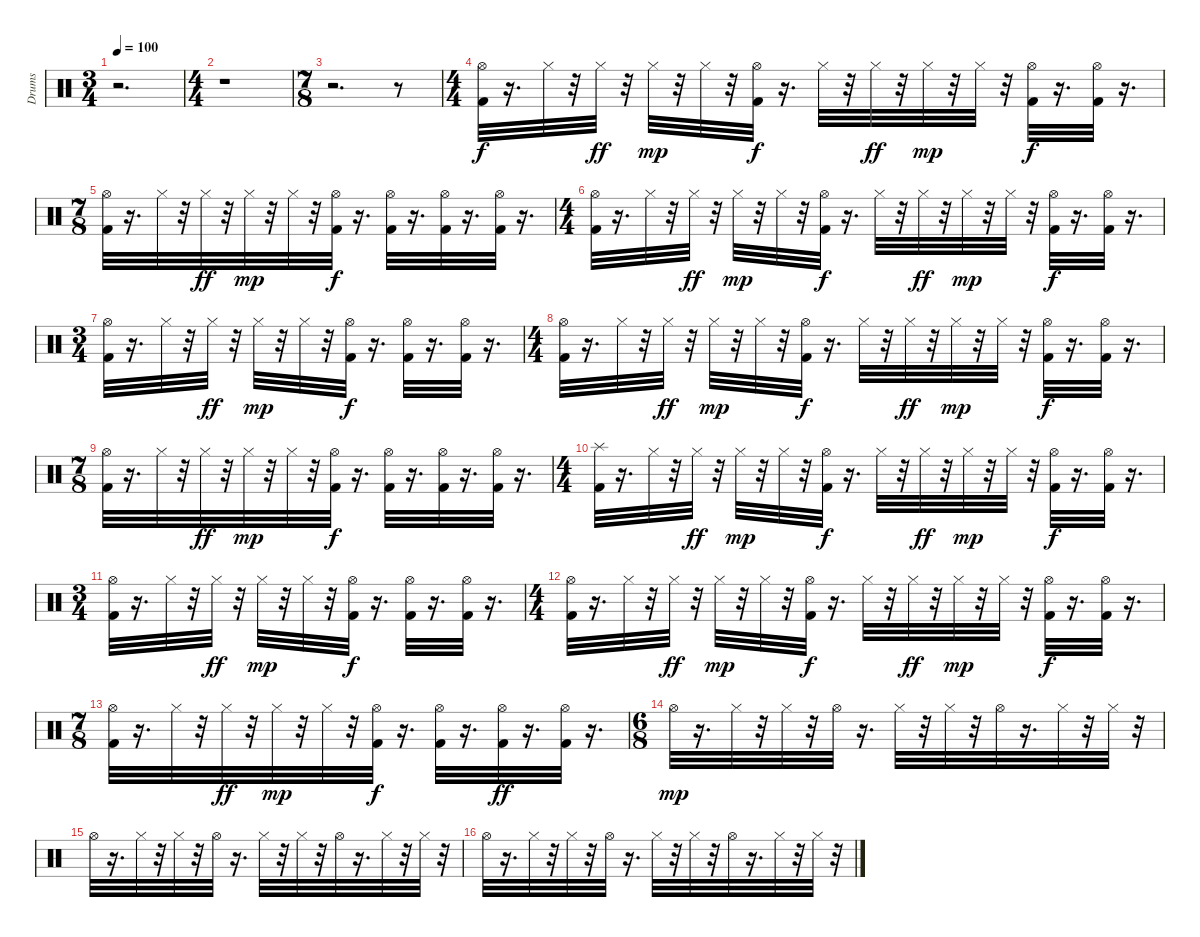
\track ("Drums               " "Drums     ") {instrument percussion}
\staff {score}
\articulation defaults
\ts (3 4)
\tempo 100
\clef neutral
\ks c
r.2{d dy f} |
\ts (4 4)
r.1 |
\ts (7 8)
r.2{d} r.8 |
\ts (4 4)
("Hi-Hat (open)" "Kick (hit) 2").32 r.16{d} "Hi-Hat (closed)".32 r.32 "Hi-Hat (closed)".32{dy ff} r.32 "Hi-Hat (closed)".32{dy mp} r.32 "Hi-Hat (closed)".32 r.32 ("Hi-Hat (open)" "Kick (hit) 2").32{dy f} r.16{d} "Hi-Hat (closed)".32 r.32 "Hi-Hat (closed)".32{dy ff} r.32 "Hi-Hat (closed)".32{dy mp} r.32 "Hi-Hat (closed)".32 r.32 ("Hi-Hat (open)" "Kick (hit) 2").32{dy f} r.16{d} ("Hi-Hat (open)" "Kick (hit) 2").32 r.16{d} |
\ts (7 8)
("Hi-Hat (open)" "Kick (hit) 2").32 r.16{d} "Hi-Hat (closed)".32 r.32 "Hi-Hat (closed)".32{dy ff} r.32 "Hi-Hat (closed)".32{dy mp} r.32 "Hi-Hat (closed)".32 r.32 ("Hi-Hat (open)" "Kick (hit) 2").32{dy f} r.16{d} ("Hi-Hat (open)" "Kick (hit) 2").32 r.16{d} ("Hi-Hat (open)" "Kick (hit) 2").32 r.16{d} ("Hi-Hat (open)" "Kick (hit) 2").32 r.16{d} |
\ts (4 4)
("Hi-Hat (open)" "Kick (hit) 2").32 r.16{d} "Hi-Hat (closed)".32 r.32 "Hi-Hat (closed)".32{dy ff} r.32 "Hi-Hat (closed)".32{dy mp} r.32 "Hi-Hat (closed)".32 r.32 ("Hi-Hat (open)" "Kick (hit) 2").32{dy f} r.16{d} "Hi-Hat (closed)".32 r.32 "Hi-Hat (closed)".32{dy ff} r.32 "Hi-Hat (closed)".32{dy mp} r.32 "Hi-Hat (closed)".32 r.32 ("Hi-Hat (open)" "Kick (hit) 2").32{dy f} r.16{d} ("Hi-Hat (open)" "Kick (hit) 2").32 r.16{d} |
\ts (3 4)
("Hi-Hat (open)" "Kick (hit) 2").32 r.16{d} "Hi-Hat (closed)".32 r.32 "Hi-Hat (closed)".32{dy ff} r.32 "Hi-Hat (closed)".32{dy mp} r.32 "Hi-Hat (closed)".32 r.32 ("Hi-Hat (open)" "Kick (hit) 2").32{dy f} r.16{d} ("Hi-Hat (open)" "Kick (hit) 2").32 r.16{d} ("Hi-Hat (open)" "Kick (hit) 2").32 r.16{d} |
\ts (4 4)
("Hi-Hat (open)" "Kick (hit) 2").32 r.16{d} "Hi-Hat (closed)".32 r.32 "Hi-Hat (closed)".32{dy ff} r.32 "Hi-Hat (closed)".32{dy mp} r.32 "Hi-Hat (closed)".32 r.32 ("Hi-Hat (open)" "Kick (hit) 2").32{dy f} r.16{d} "Hi-Hat (closed)".32 r.32 "Hi-Hat (closed)".32{dy ff} r.32 "Hi-Hat (closed)".32{dy mp} r.32 "Hi-Hat (closed)".32 r.32 ("Hi-Hat (open)" "Kick (hit) 2").32{dy f} r.16{d} ("Hi-Hat (open)" "Kick (hit) 2").32 r.16{d} |
\ts (7 8)
("Hi-Hat (open)" "Kick (hit) 2").32 r.16{d} "Hi-Hat (closed)".32 r.32 "Hi-Hat (closed)".32{dy ff} r.32 "Hi-Hat (closed)".32{dy mp} r.32 "Hi-Hat (closed)".32 r.32 ("Hi-Hat (open)" "Kick (hit) 2").32{dy f} r.16{d} ("Hi-Hat (open)" "Kick (hit) 2").32 r.16{d} ("Hi-Hat (open)" "Kick (hit) 2").32 r.16{d} ("Hi-Hat (open)" "Kick (hit) 2").32 r.16{d} |
\ts (4 4)
("Splash (hit)" "Kick (hit) 2").32 r.16{d} "Hi-Hat (closed)".32 r.32 "Hi-Hat (closed)".32{dy ff} r.32 "Hi-Hat (closed)".32{dy mp} r.32 "Hi-Hat (closed)".32 r.32 ("Hi-Hat (open)" "Kick (hit) 2").32{dy f} r.16{d} "Hi-Hat (closed)".32 r.32 "Hi-Hat (closed)".32{dy ff} r.32 "Hi-Hat (closed)".32{dy mp} r.32 "Hi-Hat (closed)".32 r.32 ("Hi-Hat (open)" "Kick (hit) 2").32{dy f} r.16{d} ("Hi-Hat (open)" "Kick (hit) 2").32 r.16{d} |
\ts (3 4)
("Hi-Hat (open)" "Kick (hit) 2").32 r.16{d} "Hi-Hat (closed)".32 r.32 "Hi-Hat (closed)".32{dy ff} r.32 "Hi-Hat (closed)".32{dy mp} r.32 "Hi-Hat (closed)".32 r.32 ("Hi-Hat (open)" "Kick (hit) 2").32{dy f} r.16{d} ("Hi-Hat (open)" "Kick (hit) 2").32 r.16{d} ("Hi-Hat (open)" "Kick (hit) 2").32 r.16{d} |
\ts (4 4)
("Hi-Hat (open)" "Kick (hit) 2").32 r.16{d} "Hi-Hat (closed)".32 r.32 "Hi-Hat (closed)".32{dy ff} r.32 "Hi-Hat (closed)".32{dy mp} r.32 "Hi-Hat (closed)".32 r.32 ("Hi-Hat (open)" "Kick (hit) 2").32{dy f} r.16{d} "Hi-Hat (closed)".32 r.32 "Hi-Hat (closed)".32{dy ff} r.32 "Hi-Hat (closed)".32{dy mp} r.32 "Hi-Hat (closed)".32 r.32 ("Hi-Hat (open)" "Kick (hit) 2").32{dy f} r.16{d} ("Hi-Hat (open)" "Kick (hit) 2").32 r.16{d} |
\ts (7 8)
("Hi-Hat (open)" "Kick (hit) 2").32 r.16{d} "Hi-Hat (closed)".32 r.32 "Hi-Hat (closed)".32{dy ff} r.32 "Hi-Hat (closed)".32{dy mp} r.32 "Hi-Hat (closed)".32 r.32 ("Hi-Hat (open)" "Kick (hit) 2").32{dy f} r.16{d} ("Hi-Hat (open)" "Kick (hit) 2").32 r.16{d} ("Hi-Hat (open)" "Kick (hit) 2").32{dy ff} r.16{d} ("Hi-Hat (open)" "Kick (hit) 2").32 r.16{d} |
\ts (6 8)
"Hi-Hat (open)".32{dy mp} r.16{d} "Hi-Hat (closed)".32 r.32 "Hi-Hat (closed)".32 r.32 "Hi-Hat (open)".32 r.16{d} "Hi-Hat (closed)".32 r.32 "Hi-Hat (closed)".32 r.32 "Hi-Hat (open)".32 r.16{d} "Hi-Hat (closed)".32 r.32 "Hi-Hat (closed)".32 r.32 |
"Hi-Hat (open)".32 r.16{d} "Hi-Hat (closed)".32 r.32 "Hi-Hat (closed)".32 r.32 "Hi-Hat (open)".32 r.16{d} "Hi-Hat (closed)".32 r.32 "Hi-Hat (closed)".32 r.32 "Hi-Hat (open)".32 r.16{d} "Hi-Hat (closed)".32 r.32 "Hi-Hat (closed)".32 r.32 |
"Hi-Hat (open)".32 r.16{d} "Hi-Hat (closed)".32 r.32 "Hi-Hat (closed)".32 r.32 "Hi-Hat (open)".32 r.16{d} "Hi-Hat (closed)".32 r.32 "Hi-Hat (closed)".32 r.32 "Hi-Hat (open)".32 r.16{d} "Hi-Hat (closed)".32 r.32 "Hi-Hat (closed)".32 r.32
